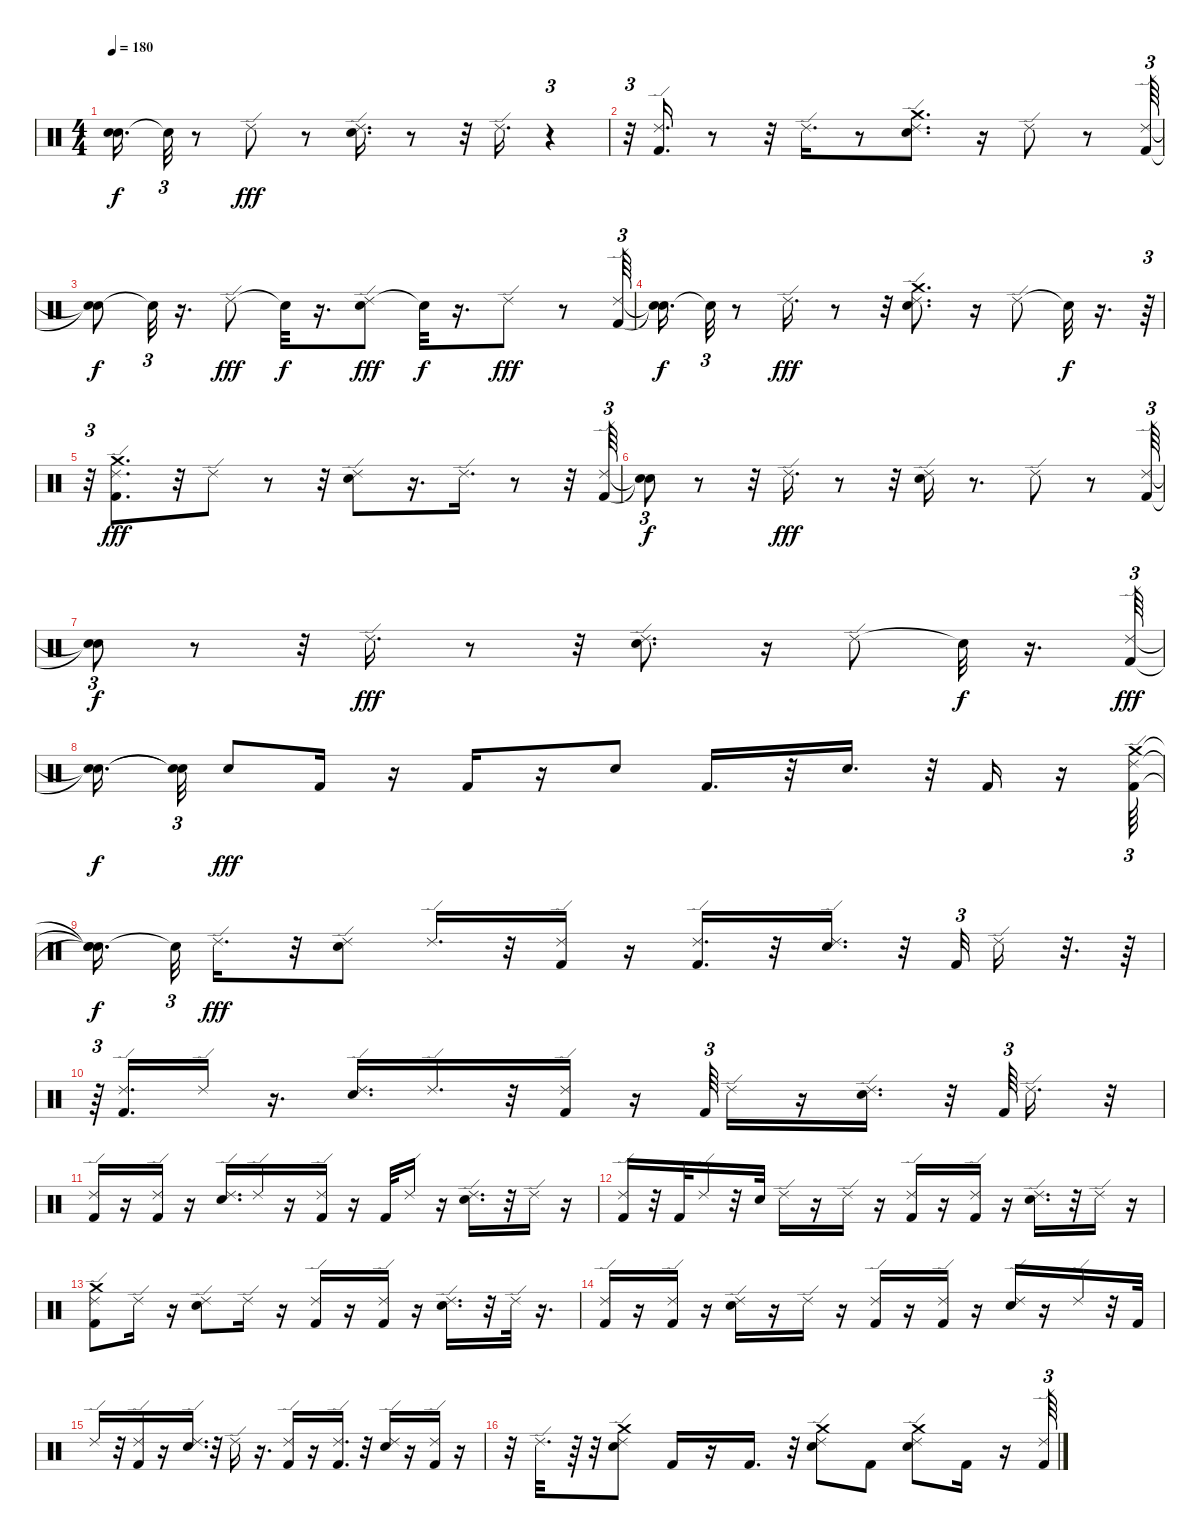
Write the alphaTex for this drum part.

\track "" {instrument percussion}
\staff {score}
\articulation defaults
\ts (4 4)
\tempo 180
\clef neutral
\ks c
("Snare (hit)"{t} "Snare (hit)"{t}).16{d dy f} "Snare (hit)"{t}.32{tu (3 2)} r.8 "Ride (edge) 2".8{dy fff} r.8 ("Ride (edge) 2" "Snare (hit) 2").16{d} r.8 r.32 "Ride (edge) 2".16{d} r.4{tu (3 2)} |
r.32{tu (3 2)} ("Kick (hit) 2" "Ride (edge) 2").16{d} r.8 r.32 "Ride (edge) 2".16{d} r.8 ("Ride (edge) 2" "Crash medium (hit)" "Snare (hit) 2").8{d} r.16 "Ride (edge) 2".8 r.8 ("Kick (hit) 2" "Ride (edge) 2").64{tu (3 2)} |
("Snare (hit)"{t} "Snare (hit)"{t}).8{dy f} "Snare (hit)"{t}.32{tu (3 2)} r.16{d} "Ride (edge) 2".8{dy fff} "Snare (hit)"{t}.32{dy f} r.16{d} ("Ride (edge) 2" "Snare (hit) 2").8{dy fff} "Snare (hit)"{t}.32{dy f} r.16{d} "Ride (edge) 2".8{dy fff} r.8 ("Kick (hit) 2" "Ride (edge) 2").64{tu (3 2)} |
("Snare (hit)"{t} "Snare (hit)"{t}).16{d dy f} "Snare (hit)"{t}.32{tu (3 2)} r.8 "Ride (edge) 2".16{d dy fff} r.8 r.32 ("Ride (edge) 2" "Crash medium (hit)" "Snare (hit) 2").8{d} r.16 "Ride (edge) 2".8 "Snare (hit)"{t}.32{dy f} r.16{d} r.64{tu (3 2)} |
r.32{tu (3 2)} ("Kick (hit) 2" "Ride (edge) 2" "Crash medium (hit)").8{d dy fff} r.32 "Ride (edge) 2".8 r.8 r.32 ("Ride (edge) 2" "Snare (hit) 2").8 r.16{d} "Ride (edge) 2".16{d} r.8 r.32 ("Kick (hit) 2" "Ride (edge) 2").64{tu (3 2)} |
("Snare (hit)"{t} "Snare (hit)"{t}).8{tu (3 2) dy f} r.8 r.32 "Ride (edge) 2".16{d dy fff} r.8 r.32 ("Ride (edge) 2" "Snare (hit) 2").16 r.8{d} "Ride (edge) 2".8 r.8 ("Kick (hit) 2" "Ride (edge) 2").64{tu (3 2)} |
("Snare (hit)"{t} "Snare (hit)"{t}).8{tu (3 2) dy f} r.8 r.32 "Ride (edge) 2".16{d dy fff} r.8 r.32 ("Ride (edge) 2" "Snare (hit) 2").8{d} r.16 "Ride (edge) 2".8 "Snare (hit)"{t}.32{dy f} r.16{d} ("Kick (hit) 2" "Ride (edge) 2").64{tu (3 2) dy fff} |
("Snare (hit)"{t} "Snare (hit)"{t}).16{d dy f beam splitsecondary} ("Snare (hit)"{t} "Snare (hit)"{t}).32{tu (3 2)} "Snare (hit) 2".8{dy fff} "Kick (hit) 2".16 r.16 "Kick (hit) 2".16 r.16 "Snare (hit) 2".8 "Kick (hit) 2".16{d} r.32 "Snare (hit) 2".16{d} r.32 "Kick (hit) 2".16 r.16 ("Kick (hit) 2" "Ride (edge) 2" "Crash medium (hit)").64{tu (3 2)} |
("Snare (hit)"{t} "Snare (hit)"{t} "Snare (hit)"{t}).16{d dy f beam splitsecondary} "Snare (hit)"{t}.32{tu (3 2)} "Ride (edge) 2".16{d dy fff} r.32 ("Ride (edge) 2" "Snare (hit) 2").8 "Ride (edge) 2".16{d} r.32 ("Kick (hit) 2" "Ride (edge) 2").16 r.16 ("Kick (hit) 2" "Ride (edge) 2").16{d} r.32 ("Ride (edge) 2" "Snare (hit) 2").16{d} r.32 "Kick (hit) 2".32{tu (3 2)} "Ride (edge) 2".16 r.32{d} r.64 |
r.64{tu (3 2)} ("Kick (hit) 2" "Ride (edge) 2").16{d} "Ride (edge) 2".16 r.16{d} ("Ride (edge) 2" "Snare (hit) 2").16{d} "Ride (edge) 2".16{d} r.32 ("Kick (hit) 2" "Ride (edge) 2").16 r.16 "Kick (hit) 2".64{tu (3 2)} "Ride (edge) 2".16 r.16 ("Snare (hit) 2" "Ride (edge) 2").16{d} r.32 "Kick (hit) 2".64{tu (3 2)} "Ride (edge) 2".16{d} r.32 |
("Kick (hit) 2" "Ride (edge) 2").16 r.16 ("Kick (hit) 2" "Ride (edge) 2").16 r.16 ("Ride (edge) 2" "Snare (hit) 2").16{d} "Ride (edge) 2".16 r.16 ("Kick (hit) 2" "Ride (edge) 2").16 r.16 "Kick (hit) 2".32 "Ride (edge) 2".16 r.16 ("Ride (edge) 2" "Snare (hit) 2").16{d} r.32 "Ride (edge) 2".16 r.16 |
("Kick (hit) 2" "Ride (edge) 2").16 r.32 "Kick (hit) 2".32 "Ride (edge) 2".16 r.32 "Snare (hit) 2".32 "Ride (edge) 2".16 r.16 "Ride (edge) 2".16 r.16 ("Kick (hit) 2" "Ride (edge) 2").16 r.16 ("Kick (hit) 2" "Ride (edge) 2").16 r.16 ("Ride (edge) 2" "Snare (hit) 2").16{d} r.32 "Ride (edge) 2".16 r.16 |
("Kick (hit) 2" "Ride (edge) 2" "Crash medium (hit)").8 "Ride (edge) 2".16 r.16 ("Ride (edge) 2" "Snare (hit) 2").8 "Ride (edge) 2".16 r.16 ("Kick (hit) 2" "Ride (edge) 2").16 r.16 ("Kick (hit) 2" "Ride (edge) 2").16 r.16 ("Snare (hit) 2" "Ride (edge) 2").16{d} r.32 "Ride (edge) 2".32 r.16{d} |
("Kick (hit) 2" "Ride (edge) 2").16 r.16 ("Kick (hit) 2" "Ride (edge) 2").16 r.16 ("Ride (edge) 2" "Snare (hit) 2").16 r.16 "Ride (edge) 2".16 r.16 ("Kick (hit) 2" "Ride (edge) 2").16 r.16 ("Kick (hit) 2" "Ride (edge) 2").16 r.16 ("Ride (edge) 2" "Snare (hit) 2").16 r.16 "Ride (edge) 2".16 r.32 "Kick (hit) 2".32 |
"Ride (edge) 2".16 r.32 ("Kick (hit) 2" "Ride (edge) 2").16 r.16 ("Ride (edge) 2" "Snare (hit) 2").16{d} r.32 "Ride (edge) 2".16 r.16{d} ("Kick (hit) 2" "Ride (edge) 2").16 r.16 ("Kick (hit) 2" "Ride (edge) 2").16{d} r.32 ("Ride (edge) 2" "Snare (hit) 2").16 r.16 ("Kick (hit) 2" "Ride (edge) 2").16 r.16 |
r.32 "Ride (edge) 2".32{d} r.64 r.32 ("Ride (edge) 2" "Crash medium (hit)" "Snare (hit) 2").8 "Kick (hit) 2".16 r.16 "Kick (hit) 2".16{d} r.32 ("Ride (edge) 2" "Crash medium (hit)" "Snare (hit) 2").8 "Kick (hit) 2".8 ("Ride (edge) 2" "Crash medium (hit)" "Snare (hit) 2").8 "Kick (hit) 2".16 r.16 ("Kick (hit) 2" "Ride (edge) 2").64{tu (3 2)}
